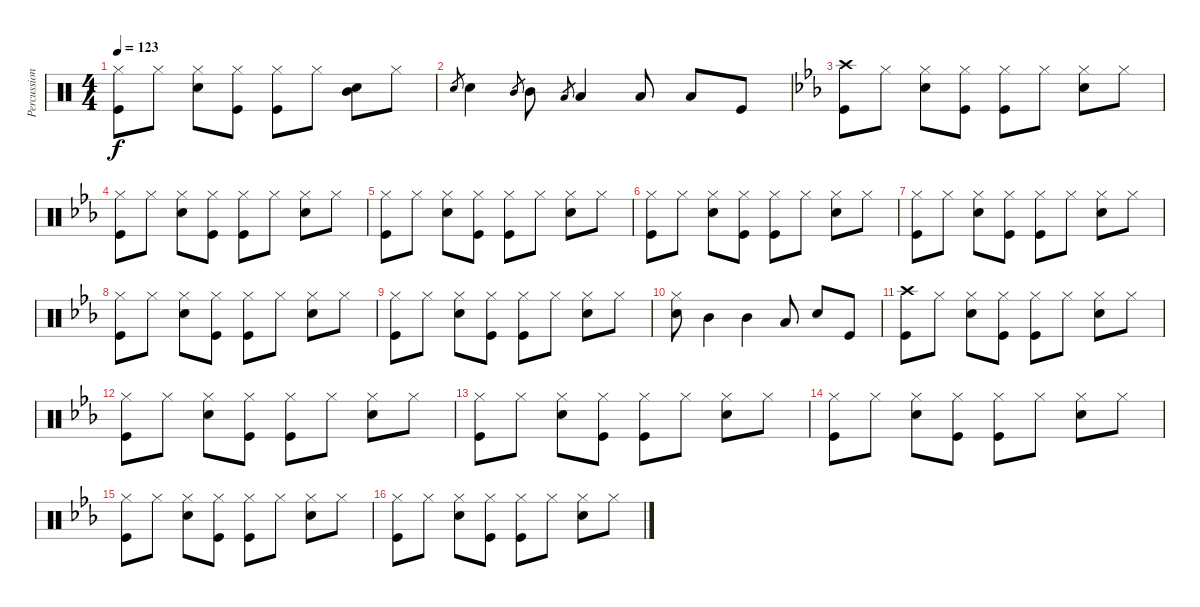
\track ("Percussion" "Percussion") {instrument percussion}
\staff {score}
\articulation defaults
\ts (4 4)
\tempo 123
\clef neutral
\ks c
("Hi-Hat (closed)" "Kick (hit)").8{dy f} "Hi-Hat (closed)".8 ("Hi-Hat (closed)" "Snare (hit) 2").8 ("Hi-Hat (closed)" "Kick (hit)").8 ("Hi-Hat (closed)" "Kick (hit)").8 "Hi-Hat (closed)".8 ("Mid Tom (hit)" "Snare (hit) 2").8 "Hi-Hat (closed)".8 |
"Snare (hit) 2".8{gr} "Snare (hit) 2".4 "Mid Tom (hit)".8{gr} "Mid Tom (hit)".8 "Low Tom (hit)".8{gr} "Low Tom (hit)".4 "Low Tom (hit)".8 "Low Tom (hit)".8 "Kick (hit)".8 |
\ks eb
("Crash high (hit)" "Kick (hit)").8 "Hi-Hat (closed)".8 ("Hi-Hat (closed)" "Snare (hit) 2").8 ("Hi-Hat (closed)" "Kick (hit)").8 ("Hi-Hat (closed)" "Kick (hit)").8 "Hi-Hat (closed)".8 ("Hi-Hat (closed)" "Snare (hit) 2").8 "Hi-Hat (closed)".8 |
("Hi-Hat (closed)" "Kick (hit)").8 "Hi-Hat (closed)".8 ("Hi-Hat (closed)" "Snare (hit) 2").8 ("Hi-Hat (closed)" "Kick (hit)").8 ("Hi-Hat (closed)" "Kick (hit)").8 "Hi-Hat (closed)".8 ("Hi-Hat (closed)" "Snare (hit) 2").8 "Hi-Hat (closed)".8 |
("Hi-Hat (closed)" "Kick (hit)").8 "Hi-Hat (closed)".8 ("Hi-Hat (closed)" "Snare (hit) 2").8 ("Hi-Hat (closed)" "Kick (hit)").8 ("Hi-Hat (closed)" "Kick (hit)").8 "Hi-Hat (closed)".8 ("Hi-Hat (closed)" "Snare (hit) 2").8 "Hi-Hat (closed)".8 |
("Hi-Hat (closed)" "Kick (hit)").8 "Hi-Hat (closed)".8 ("Hi-Hat (closed)" "Snare (hit) 2").8 ("Hi-Hat (closed)" "Kick (hit)").8 ("Hi-Hat (closed)" "Kick (hit)").8 "Hi-Hat (closed)".8 ("Hi-Hat (closed)" "Snare (hit) 2").8 "Hi-Hat (closed)".8 |
("Hi-Hat (closed)" "Kick (hit)").8 "Hi-Hat (closed)".8 ("Hi-Hat (closed)" "Snare (hit) 2").8 ("Hi-Hat (closed)" "Kick (hit)").8 ("Hi-Hat (closed)" "Kick (hit)").8 "Hi-Hat (closed)".8 ("Hi-Hat (closed)" "Snare (hit) 2").8 "Hi-Hat (closed)".8 |
("Hi-Hat (closed)" "Kick (hit)").8 "Hi-Hat (closed)".8 ("Hi-Hat (closed)" "Snare (hit) 2").8 ("Hi-Hat (closed)" "Kick (hit)").8 ("Hi-Hat (closed)" "Kick (hit)").8 "Hi-Hat (closed)".8 ("Hi-Hat (closed)" "Snare (hit) 2").8 "Hi-Hat (closed)".8 |
("Hi-Hat (closed)" "Kick (hit)").8 "Hi-Hat (closed)".8 ("Hi-Hat (closed)" "Snare (hit) 2").8 ("Hi-Hat (closed)" "Kick (hit)").8 ("Hi-Hat (closed)" "Kick (hit)").8 "Hi-Hat (closed)".8 ("Hi-Hat (closed)" "Snare (hit) 2").8 "Hi-Hat (closed)".8 |
("Hi-Hat (closed)" "Snare (hit) 2").8 "Mid Tom (hit)".4 "Mid Tom (hit)".4 "Low Tom (hit)".8 "Snare (hit) 2".8 "Kick (hit)".8 |
("Crash high (hit)" "Kick (hit)").8 "Hi-Hat (closed)".8 ("Hi-Hat (closed)" "Snare (hit) 2").8 ("Hi-Hat (closed)" "Kick (hit)").8 ("Hi-Hat (closed)" "Kick (hit)").8 "Hi-Hat (closed)".8 ("Hi-Hat (closed)" "Snare (hit) 2").8 "Hi-Hat (closed)".8 |
("Hi-Hat (closed)" "Kick (hit)").8 "Hi-Hat (closed)".8 ("Hi-Hat (closed)" "Snare (hit) 2").8 ("Hi-Hat (closed)" "Kick (hit)").8 ("Hi-Hat (closed)" "Kick (hit)").8 "Hi-Hat (closed)".8 ("Hi-Hat (closed)" "Snare (hit) 2").8 "Hi-Hat (closed)".8 |
("Hi-Hat (closed)" "Kick (hit)").8 "Hi-Hat (closed)".8 ("Hi-Hat (closed)" "Snare (hit) 2").8 ("Hi-Hat (closed)" "Kick (hit)").8 ("Hi-Hat (closed)" "Kick (hit)").8 "Hi-Hat (closed)".8 ("Hi-Hat (closed)" "Snare (hit) 2").8 "Hi-Hat (closed)".8 |
("Hi-Hat (closed)" "Kick (hit)").8 "Hi-Hat (closed)".8 ("Hi-Hat (closed)" "Snare (hit) 2").8 ("Hi-Hat (closed)" "Kick (hit)").8 ("Hi-Hat (closed)" "Kick (hit)").8 "Hi-Hat (closed)".8 ("Hi-Hat (closed)" "Snare (hit) 2").8 "Hi-Hat (closed)".8 |
("Hi-Hat (closed)" "Kick (hit)").8 "Hi-Hat (closed)".8 ("Hi-Hat (closed)" "Snare (hit) 2").8 ("Hi-Hat (closed)" "Kick (hit)").8 ("Hi-Hat (closed)" "Kick (hit)").8 "Hi-Hat (closed)".8 ("Hi-Hat (closed)" "Snare (hit) 2").8 "Hi-Hat (closed)".8 |
("Hi-Hat (closed)" "Kick (hit)").8 "Hi-Hat (closed)".8 ("Hi-Hat (closed)" "Snare (hit) 2").8 ("Hi-Hat (closed)" "Kick (hit)").8 ("Hi-Hat (closed)" "Kick (hit)").8 "Hi-Hat (closed)".8 ("Hi-Hat (closed)" "Snare (hit) 2").8 "Hi-Hat (closed)".8
